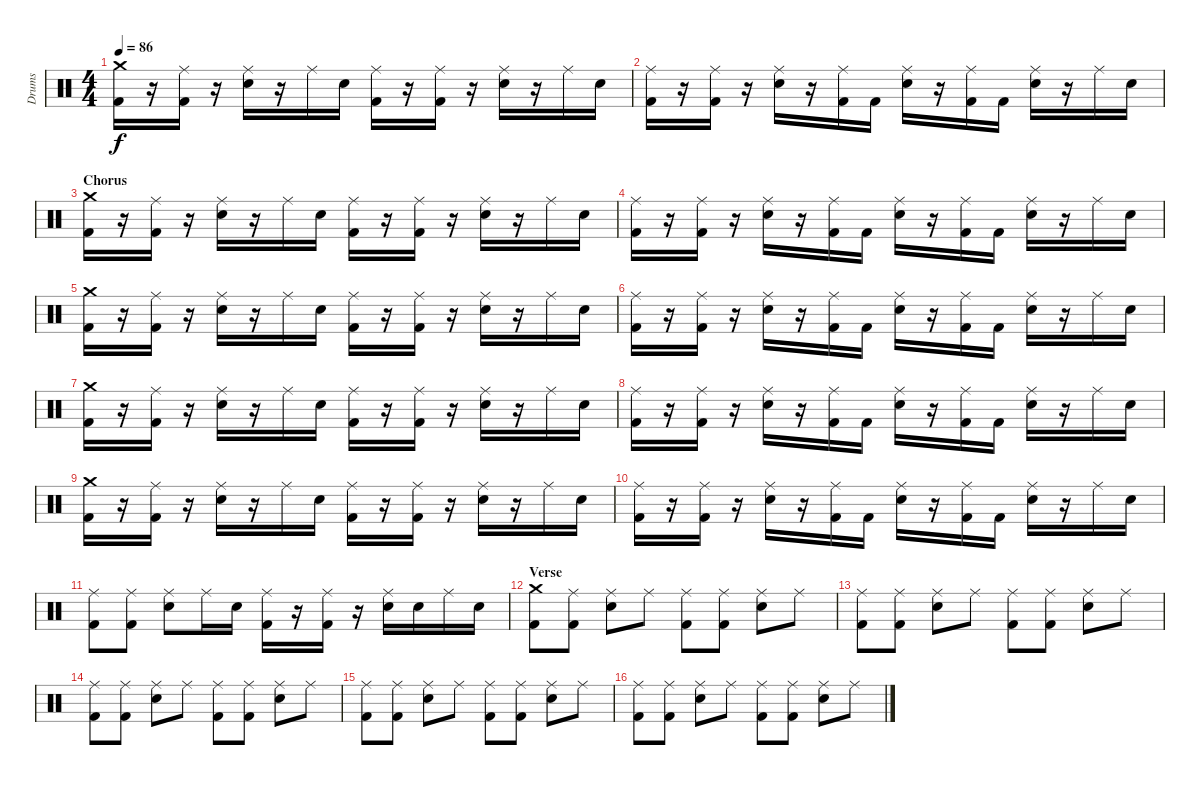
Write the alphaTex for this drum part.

\track ("Drums" "Drums") {instrument percussion}
\staff {score}
\articulation defaults
\ts (4 4)
\tempo 86
\clef neutral
\ks c
("Crash medium (hit)" "Kick (hit) 2").16{dy f} r.16 ("Ride (middle)" "Kick (hit) 2").16 r.16 ("Ride (middle)" "Snare (hit) 2").16 r.16 "Ride (middle)".16 "Snare (hit) 2".16 ("Ride (middle)" "Kick (hit) 2").16 r.16 ("Ride (middle)" "Kick (hit) 2").16 r.16 ("Ride (middle)" "Snare (hit) 2").16 r.16 "Ride (middle)".16 "Snare (hit) 2".16 |
("Ride (middle)" "Kick (hit) 2").16 r.16 ("Ride (middle)" "Kick (hit) 2").16 r.16 ("Ride (middle)" "Snare (hit) 2").16 r.16 ("Ride (middle)" "Kick (hit) 2").16 "Kick (hit) 2".16 ("Ride (middle)" "Snare (hit) 2").16 r.16 ("Ride (middle)" "Kick (hit) 2").16 "Kick (hit) 2".16 ("Ride (middle)" "Snare (hit) 2").16 r.16 "Ride (middle)".16 "Snare (hit) 2".16 |
\section ("" "Chorus")
("Crash medium (hit)" "Kick (hit) 2").16 r.16 ("Ride (middle)" "Kick (hit) 2").16 r.16 ("Ride (middle)" "Snare (hit) 2").16 r.16 "Ride (middle)".16 "Snare (hit) 2".16 ("Ride (middle)" "Kick (hit) 2").16 r.16 ("Ride (middle)" "Kick (hit) 2").16 r.16 ("Ride (middle)" "Snare (hit) 2").16 r.16 "Ride (middle)".16 "Snare (hit) 2".16 |
("Ride (middle)" "Kick (hit) 2").16 r.16 ("Ride (middle)" "Kick (hit) 2").16 r.16 ("Ride (middle)" "Snare (hit) 2").16 r.16 ("Ride (middle)" "Kick (hit) 2").16 "Kick (hit) 2".16 ("Ride (middle)" "Snare (hit) 2").16 r.16 ("Ride (middle)" "Kick (hit) 2").16 "Kick (hit) 2".16 ("Ride (middle)" "Snare (hit) 2").16 r.16 "Ride (middle)".16 "Snare (hit) 2".16 |
("Crash medium (hit)" "Kick (hit) 2").16 r.16 ("Ride (middle)" "Kick (hit) 2").16 r.16 ("Ride (middle)" "Snare (hit) 2").16 r.16 "Ride (middle)".16 "Snare (hit) 2".16 ("Ride (middle)" "Kick (hit) 2").16 r.16 ("Ride (middle)" "Kick (hit) 2").16 r.16 ("Ride (middle)" "Snare (hit) 2").16 r.16 "Ride (middle)".16 "Snare (hit) 2".16 |
("Ride (middle)" "Kick (hit) 2").16 r.16 ("Ride (middle)" "Kick (hit) 2").16 r.16 ("Ride (middle)" "Snare (hit) 2").16 r.16 ("Ride (middle)" "Kick (hit) 2").16 "Kick (hit) 2".16 ("Ride (middle)" "Snare (hit) 2").16 r.16 ("Ride (middle)" "Kick (hit) 2").16 "Kick (hit) 2".16 ("Ride (middle)" "Snare (hit) 2").16 r.16 "Ride (middle)".16 "Snare (hit) 2".16 |
("Crash medium (hit)" "Kick (hit) 2").16 r.16 ("Ride (middle)" "Kick (hit) 2").16 r.16 ("Ride (middle)" "Snare (hit) 2").16 r.16 "Ride (middle)".16 "Snare (hit) 2".16 ("Ride (middle)" "Kick (hit) 2").16 r.16 ("Ride (middle)" "Kick (hit) 2").16 r.16 ("Ride (middle)" "Snare (hit) 2").16 r.16 "Ride (middle)".16 "Snare (hit) 2".16 |
("Ride (middle)" "Kick (hit) 2").16 r.16 ("Ride (middle)" "Kick (hit) 2").16 r.16 ("Ride (middle)" "Snare (hit) 2").16 r.16 ("Ride (middle)" "Kick (hit) 2").16 "Kick (hit) 2".16 ("Ride (middle)" "Snare (hit) 2").16 r.16 ("Ride (middle)" "Kick (hit) 2").16 "Kick (hit) 2".16 ("Ride (middle)" "Snare (hit) 2").16 r.16 "Ride (middle)".16 "Snare (hit) 2".16 |
("Crash medium (hit)" "Kick (hit) 2").16 r.16 ("Ride (middle)" "Kick (hit) 2").16 r.16 ("Ride (middle)" "Snare (hit) 2").16 r.16 "Ride (middle)".16 "Snare (hit) 2".16 ("Ride (middle)" "Kick (hit) 2").16 r.16 ("Ride (middle)" "Kick (hit) 2").16 r.16 ("Ride (middle)" "Snare (hit) 2").16 r.16 "Ride (middle)".16 "Snare (hit) 2".16 |
("Ride (middle)" "Kick (hit) 2").16 r.16 ("Ride (middle)" "Kick (hit) 2").16 r.16 ("Ride (middle)" "Snare (hit) 2").16 r.16 ("Ride (middle)" "Kick (hit) 2").16 "Kick (hit) 2".16 ("Ride (middle)" "Snare (hit) 2").16 r.16 ("Ride (middle)" "Kick (hit) 2").16 "Kick (hit) 2".16 ("Ride (middle)" "Snare (hit) 2").16 r.16 "Ride (middle)".16 "Snare (hit) 2".16 |
("Ride (middle)" "Kick (hit) 2").8 ("Ride (middle)" "Kick (hit) 2").8 ("Ride (middle)" "Snare (hit) 2").8 "Ride (middle)".16 "Snare (hit) 2".16 ("Ride (middle)" "Kick (hit) 2").16 r.16 ("Ride (middle)" "Kick (hit) 2").16 r.16 ("Ride (middle)" "Snare (hit) 2").16 "Snare (hit) 2".16 "Ride (middle)".16 "Snare (hit) 2".16 |
\section ("" "Verse")
("Crash medium (hit)" "Kick (hit) 2").8 ("Ride (middle)" "Kick (hit) 2").8 ("Ride (middle)" "Snare (hit) 2").8 "Ride (middle)".8 ("Ride (middle)" "Kick (hit) 2").8 ("Ride (middle)" "Kick (hit) 2").8 ("Ride (middle)" "Snare (hit) 2").8 "Ride (middle)".8 |
("Ride (middle)" "Kick (hit) 2").8 ("Ride (middle)" "Kick (hit) 2").8 ("Ride (middle)" "Snare (hit) 2").8 "Ride (middle)".8 ("Ride (middle)" "Kick (hit) 2").8 ("Ride (middle)" "Kick (hit) 2").8 ("Ride (middle)" "Snare (hit) 2").8 "Ride (middle)".8 |
("Ride (middle)" "Kick (hit) 2").8 ("Ride (middle)" "Kick (hit) 2").8 ("Ride (middle)" "Snare (hit) 2").8 "Ride (middle)".8 ("Ride (middle)" "Kick (hit) 2").8 ("Ride (middle)" "Kick (hit) 2").8 ("Ride (middle)" "Snare (hit) 2").8 "Ride (middle)".8 |
("Ride (middle)" "Kick (hit) 2").8 ("Ride (middle)" "Kick (hit) 2").8 ("Ride (middle)" "Snare (hit) 2").8 "Ride (middle)".8 ("Ride (middle)" "Kick (hit) 2").8 ("Ride (middle)" "Kick (hit) 2").8 ("Ride (middle)" "Snare (hit) 2").8 "Ride (middle)".8 |
("Ride (middle)" "Kick (hit) 2").8 ("Ride (middle)" "Kick (hit) 2").8 ("Ride (middle)" "Snare (hit) 2").8 "Ride (middle)".8 ("Ride (middle)" "Kick (hit) 2").8 ("Ride (middle)" "Kick (hit) 2").8 ("Ride (middle)" "Snare (hit) 2").8 "Ride (middle)".8
